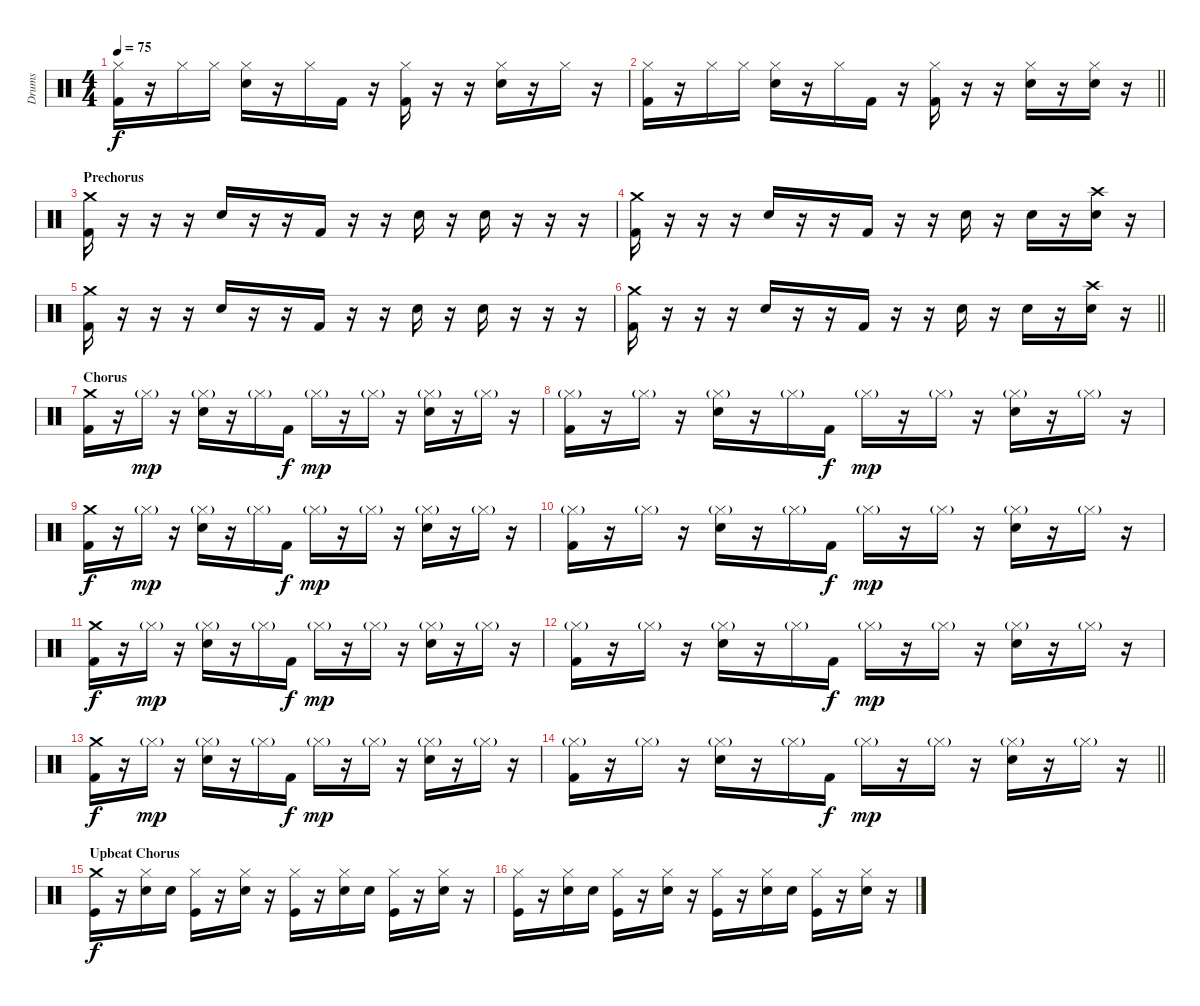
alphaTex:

\track ("Drums" "Drums") {instrument percussion}
\staff {score}
\articulation defaults
\ts (4 4)
\tempo 75
\clef neutral
\ks c
("Hi-Hat (closed)" "Kick (hit) 2").16{dy f} r.16 "Hi-Hat (closed)".16 "Hi-Hat (closed)".16 ("Hi-Hat (closed)" "Snare (hit) 2").16 r.16 "Hi-Hat (closed)".16 "Kick (hit) 2".16 r.16 ("Hi-Hat (closed)" "Kick (hit) 2").16 r.16 r.16 ("Hi-Hat (closed)" "Snare (hit) 2").16 r.16 "Hi-Hat (closed)".16 r.16 |
\barLineRight lightlight
("Hi-Hat (closed)" "Kick (hit) 2").16 r.16 "Hi-Hat (closed)".16 "Hi-Hat (closed)".16 ("Hi-Hat (closed)" "Snare (hit) 2").16 r.16 "Hi-Hat (closed)".16 "Kick (hit) 2".16 r.16 ("Hi-Hat (closed)" "Kick (hit) 2").16 r.16 r.16 ("Hi-Hat (closed)" "Snare (hit) 2").16 r.16 ("Hi-Hat (closed)" "Snare (hit) 2").16 r.16 |
\section ("" "Prechorus")
("Crash medium (hit)" "Kick (hit) 2").16 r.16 r.16 r.16 "Snare (hit) 2".16 r.16 r.16 "Kick (hit) 2".16 r.16 r.16 "Snare (hit) 2".16 r.16 "Snare (hit) 2".16 r.16 r.16 r.16 |
("Crash medium (hit)" "Kick (hit) 2").16 r.16 r.16 r.16 "Snare (hit) 2".16 r.16 r.16 "Kick (hit) 2".16 r.16 r.16 "Snare (hit) 2".16 r.16 "Snare (hit) 2".16 r.16 ("Crash high (hit)" "Snare (hit) 2").16 r.16 |
("Crash medium (hit)" "Kick (hit) 2").16 r.16 r.16 r.16 "Snare (hit) 2".16 r.16 r.16 "Kick (hit) 2".16 r.16 r.16 "Snare (hit) 2".16 r.16 "Snare (hit) 2".16 r.16 r.16 r.16 |
\barLineRight lightlight
("Crash medium (hit)" "Kick (hit) 2").16 r.16 r.16 r.16 "Snare (hit) 2".16 r.16 r.16 "Kick (hit) 2".16 r.16 r.16 "Snare (hit) 2".16 r.16 "Snare (hit) 2".16 r.16 ("Crash high (hit)" "Snare (hit) 2").16 r.16 |
\section ("" "Chorus")
("Crash medium (hit)" "Kick (hit) 2").16 r.16 "Hi-Hat (closed)"{g}.16{dy mp} r.16 ("Hi-Hat (closed)"{g} "Snare (hit) 2").16 r.16 "Hi-Hat (closed)"{g}.16 "Kick (hit) 2".16{dy f} "Hi-Hat (closed)"{g}.16{dy mp} r.16 "Hi-Hat (closed)"{g}.16 r.16 ("Hi-Hat (closed)"{g} "Snare (hit) 2").16 r.16 "Hi-Hat (closed)"{g}.16 r.16 |
("Hi-Hat (closed)"{g} "Kick (hit) 2").16 r.16 "Hi-Hat (closed)"{g}.16 r.16 ("Hi-Hat (closed)"{g} "Snare (hit) 2").16 r.16 "Hi-Hat (closed)"{g}.16 "Kick (hit) 2".16{dy f} "Hi-Hat (closed)"{g}.16{dy mp} r.16 "Hi-Hat (closed)"{g}.16 r.16 ("Hi-Hat (closed)"{g} "Snare (hit) 2").16 r.16 "Hi-Hat (closed)"{g}.16 r.16 |
("Crash medium (hit)" "Kick (hit) 2").16{dy f} r.16 "Hi-Hat (closed)"{g}.16{dy mp} r.16 ("Hi-Hat (closed)"{g} "Snare (hit) 2").16 r.16 "Hi-Hat (closed)"{g}.16 "Kick (hit) 2".16{dy f} "Hi-Hat (closed)"{g}.16{dy mp} r.16 "Hi-Hat (closed)"{g}.16 r.16 ("Hi-Hat (closed)"{g} "Snare (hit) 2").16 r.16 "Hi-Hat (closed)"{g}.16 r.16 |
("Hi-Hat (closed)"{g} "Kick (hit) 2").16 r.16 "Hi-Hat (closed)"{g}.16 r.16 ("Hi-Hat (closed)"{g} "Snare (hit) 2").16 r.16 "Hi-Hat (closed)"{g}.16 "Kick (hit) 2".16{dy f} "Hi-Hat (closed)"{g}.16{dy mp} r.16 "Hi-Hat (closed)"{g}.16 r.16 ("Hi-Hat (closed)"{g} "Snare (hit) 2").16 r.16 "Hi-Hat (closed)"{g}.16 r.16 |
("Crash medium (hit)" "Kick (hit) 2").16{dy f} r.16 "Hi-Hat (closed)"{g}.16{dy mp} r.16 ("Hi-Hat (closed)"{g} "Snare (hit) 2").16 r.16 "Hi-Hat (closed)"{g}.16 "Kick (hit) 2".16{dy f} "Hi-Hat (closed)"{g}.16{dy mp} r.16 "Hi-Hat (closed)"{g}.16 r.16 ("Hi-Hat (closed)"{g} "Snare (hit) 2").16 r.16 "Hi-Hat (closed)"{g}.16 r.16 |
("Hi-Hat (closed)"{g} "Kick (hit) 2").16 r.16 "Hi-Hat (closed)"{g}.16 r.16 ("Hi-Hat (closed)"{g} "Snare (hit) 2").16 r.16 "Hi-Hat (closed)"{g}.16 "Kick (hit) 2".16{dy f} "Hi-Hat (closed)"{g}.16{dy mp} r.16 "Hi-Hat (closed)"{g}.16 r.16 ("Hi-Hat (closed)"{g} "Snare (hit) 2").16 r.16 "Hi-Hat (closed)"{g}.16 r.16 |
("Crash medium (hit)" "Kick (hit) 2").16{dy f} r.16 "Hi-Hat (closed)"{g}.16{dy mp} r.16 ("Hi-Hat (closed)"{g} "Snare (hit) 2").16 r.16 "Hi-Hat (closed)"{g}.16 "Kick (hit) 2".16{dy f} "Hi-Hat (closed)"{g}.16{dy mp} r.16 "Hi-Hat (closed)"{g}.16 r.16 ("Hi-Hat (closed)"{g} "Snare (hit) 2").16 r.16 "Hi-Hat (closed)"{g}.16 r.16 |
\barLineRight lightlight
("Hi-Hat (closed)"{g} "Kick (hit) 2").16 r.16 "Hi-Hat (closed)"{g}.16 r.16 ("Hi-Hat (closed)"{g} "Snare (hit) 2").16 r.16 "Hi-Hat (closed)"{g}.16 "Kick (hit) 2".16{dy f} "Hi-Hat (closed)"{g}.16{dy mp} r.16 "Hi-Hat (closed)"{g}.16 r.16 ("Hi-Hat (closed)"{g} "Snare (hit) 2").16 r.16 "Hi-Hat (closed)"{g}.16 r.16 |
\section ("" "Upbeat Chorus")
("Crash medium (hit)" "Kick (hit)").16{dy f} r.16 ("Hi-Hat (closed)" "Electric Snare (hit)").16 "Electric Snare (hit)".16 ("Hi-Hat (closed)" "Kick (hit)").16 r.16 ("Hi-Hat (closed)" "Electric Snare (hit)").16 r.16 ("Hi-Hat (closed)" "Kick (hit)").16 r.16 ("Hi-Hat (closed)" "Electric Snare (hit)").16 "Electric Snare (hit)".16 ("Hi-Hat (closed)" "Kick (hit)").16 r.16 ("Hi-Hat (closed)" "Electric Snare (hit)").16 r.16 |
("Hi-Hat (closed)" "Kick (hit)").16 r.16 ("Hi-Hat (closed)" "Electric Snare (hit)").16 "Electric Snare (hit)".16 ("Hi-Hat (closed)" "Kick (hit)").16 r.16 ("Hi-Hat (closed)" "Electric Snare (hit)").16 r.16 ("Hi-Hat (closed)" "Kick (hit)").16 r.16 ("Hi-Hat (closed)" "Electric Snare (hit)").16 "Electric Snare (hit)".16 ("Hi-Hat (closed)" "Kick (hit)").16 r.16 ("Hi-Hat (closed)" "Electric Snare (hit)").16 r.16
